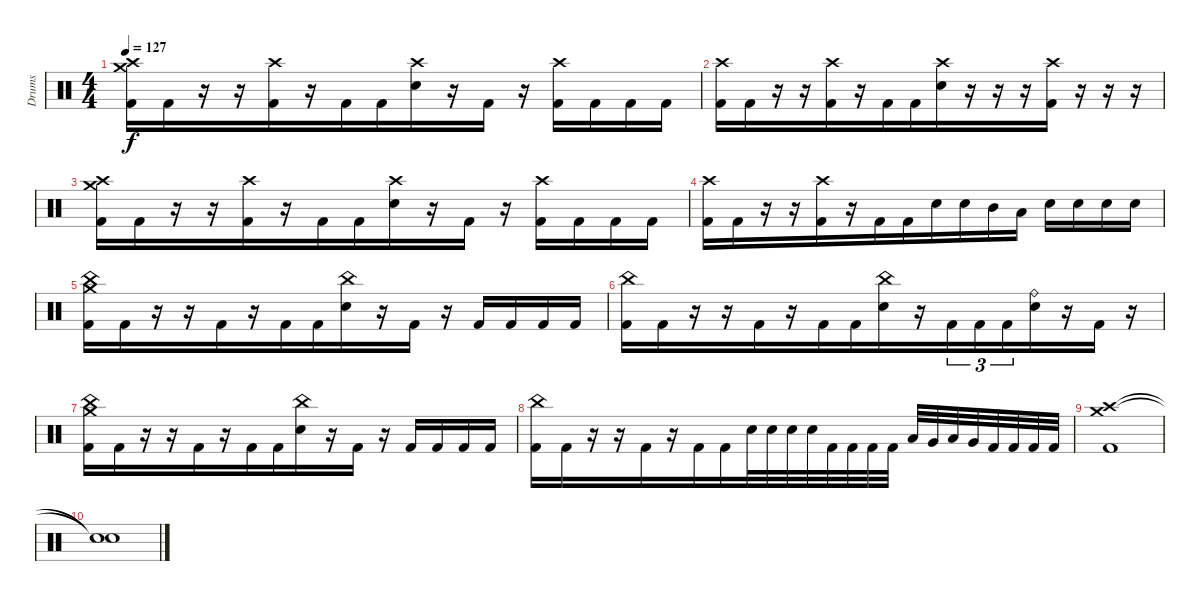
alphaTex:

\track ("Drums" "Drums") {instrument percussion}
\staff {score}
\articulation defaults
\ts (4 4)
\tempo 127
\clef neutral
\ks c
("Crash medium (hit)" "Crash high (hit)" "Kick (hit) 2").16{dy f beam merge} "Kick (hit) 2".16{beam merge} r.16{beam merge} r.16 ("Crash high (hit)" "Kick (hit) 2").16{beam merge} r.16 "Kick (hit) 2".16 "Kick (hit) 2".16{beam merge} ("Crash high (hit)" "Electric Snare (hit)").16{beam merge} r.16 "Kick (hit) 2".16 r.16{beam merge} ("Crash high (hit)" "Kick (hit) 2").16 "Kick (hit) 2".16{beam merge} "Kick (hit) 2".16{beam merge} "Kick (hit) 2".16 |
("Crash high (hit)" "Kick (hit) 2").16{beam merge} "Kick (hit) 2".16{beam merge} r.16{beam merge} r.16 ("Crash high (hit)" "Kick (hit) 2").16{beam merge} r.16 "Kick (hit) 2".16 "Kick (hit) 2".16{beam merge} ("Crash high (hit)" "Electric Snare (hit)").16{beam merge} r.16 r.16 r.16{beam merge} ("Crash high (hit)" "Kick (hit) 2").16 r.16{beam merge} r.16{beam merge} r.16 |
("Crash medium (hit)" "Crash high (hit)" "Kick (hit) 2").16{beam merge} "Kick (hit) 2".16{beam merge} r.16{beam merge} r.16 ("Crash high (hit)" "Kick (hit) 2").16{beam merge} r.16 "Kick (hit) 2".16 "Kick (hit) 2".16{beam merge} ("Crash high (hit)" "Electric Snare (hit)").16{beam merge} r.16 "Kick (hit) 2".16 r.16{beam merge} ("Crash high (hit)" "Kick (hit) 2").16 "Kick (hit) 2".16{beam merge} "Kick (hit) 2".16{beam merge} "Kick (hit) 2".16 |
("Crash high (hit)" "Kick (hit) 2").16{beam merge} "Kick (hit) 2".16{beam merge} r.16{beam merge} r.16 ("Crash high (hit)" "Kick (hit) 2").16{beam merge} r.16 "Kick (hit) 2".16 "Kick (hit) 2".16{beam merge} "Electric Snare (hit)".16{beam merge} "Electric Snare (hit)".16{beam merge} "Mid Tom (hit)".16{beam merge} "Low Tom (hit)".16 "Electric Snare (hit)".16{beam merge} "Electric Snare (hit)".16 "Electric Snare (hit)".16{beam merge} "Electric Snare (hit)".16 |
("Crash medium (hit)" "China (hit)" "Kick (hit) 2").16{beam merge} "Kick (hit) 2".16{beam merge} r.16{beam merge} r.16 "Kick (hit) 2".16{beam merge} r.16{beam merge} "Kick (hit) 2".16 "Kick (hit) 2".16{beam merge} ("China (hit)" "Electric Snare (hit)").16{beam merge} r.16 "Kick (hit) 2".16 r.16{beam merge} "Kick (hit) 2".16 "Kick (hit) 2".16{beam merge} "Kick (hit) 2".16{beam merge} "Kick (hit) 2".16 |
("China (hit)" "Kick (hit) 2").16{beam merge} "Kick (hit) 2".16{beam merge} r.16{beam merge} r.16 "Kick (hit) 2".16{beam merge} r.16 "Kick (hit) 2".16 "Kick (hit) 2".16{beam merge} ("China (hit)" "Electric Snare (hit)").16{beam merge} r.16 "Kick (hit) 2".16{tu (3 2)} "Kick (hit) 2".16{tu (3 2)} "Kick (hit) 2".16{tu (3 2) beam merge} ("Ride (bell)" "Electric Snare (hit)").16 r.16{beam merge} "Kick (hit) 2".16{beam merge} r.16 |
("Crash medium (hit)" "China (hit)" "Kick (hit) 2").16{beam merge} "Kick (hit) 2".16{beam merge} r.16{beam merge} r.16 "Kick (hit) 2".16{beam merge} r.16{beam merge} "Kick (hit) 2".16 "Kick (hit) 2".16{beam merge} ("China (hit)" "Electric Snare (hit)").16{beam merge} r.16 "Kick (hit) 2".16 r.16{beam merge} "Kick (hit) 2".16 "Kick (hit) 2".16{beam merge} "Kick (hit) 2".16{beam merge} "Kick (hit) 2".16 |
("China (hit)" "Kick (hit) 2").16{beam merge} "Kick (hit) 2".16{beam merge} r.16{beam merge} r.16 "Kick (hit) 2".16{beam merge} r.16 "Kick (hit) 2".16 "Kick (hit) 2".16{beam merge} "Electric Snare (hit)".32 "Electric Snare (hit)".32{beam merge} "Electric Snare (hit)".32 "Electric Snare (hit)".32{beam merge} "Kick (hit) 2".32{beam merge} "Kick (hit) 2".32 "Kick (hit) 2".32 "Kick (hit) 2".32 "Low Tom (hit)".32 "Very Low Tom (hit)".32{beam merge} "Low Tom (hit)".32 "Very Low Tom (hit)".32 "Kick (hit) 2".32 "Kick (hit) 2".32 "Kick (hit) 2".32 "Kick (hit) 2".32 |
("Crash medium (hit)" "Crash high (hit)" "Kick (hit) 2").1 |
("Snare (hit)"{t} "Snare (hit)"{t}).1
